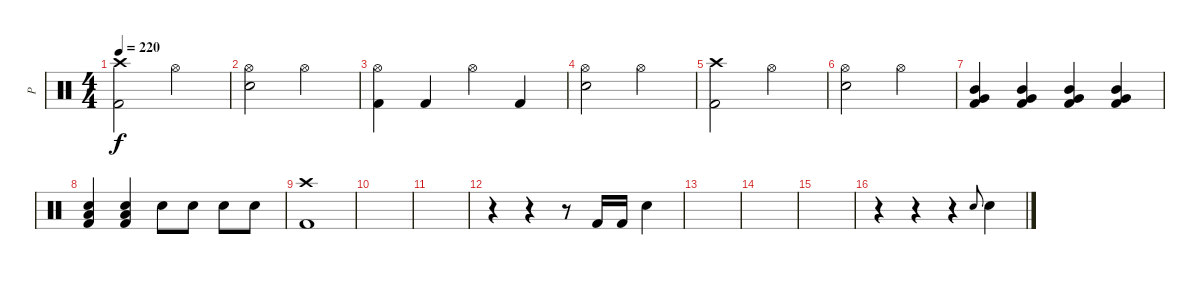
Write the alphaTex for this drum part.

\track ("P" "P") {instrument percussion}
\staff {score}
\articulation defaults
\ts (4 4)
\tempo 220
\clef neutral
\ks c
("Crash high (hit)" "Kick (hit) 2").2{dy f} "Hi-Hat (open)".2 |
("Hi-Hat (open)" "Electric Snare (hit)").2 "Hi-Hat (open)".2 |
("Hi-Hat (open)" "Kick (hit) 2").4 "Kick (hit) 2".4 "Hi-Hat (open)".4 "Kick (hit) 2".4 |
("Hi-Hat (open)" "Electric Snare (hit)").2 "Hi-Hat (open)".2 |
("Crash high (hit)" "Kick (hit) 2").2 "Hi-Hat (open)".2 |
("Hi-Hat (open)" "Electric Snare (hit)").2 "Hi-Hat (open)".2 |
("Very Low Tom (hit)" "Mid Tom (hit)" "Kick (hit) 2").4 ("Very Low Tom (hit)" "Mid Tom (hit)" "Kick (hit) 2").4 ("Very Low Tom (hit)" "Mid Tom (hit)" "Kick (hit) 2").4 ("Very Low Tom (hit)" "Mid Tom (hit)" "Kick (hit) 2").4 |
("Low Tom (hit)" "Electric Snare (hit)" "Kick (hit) 2").4 ("Low Tom (hit)" "Electric Snare (hit)" "Kick (hit) 2").4 "Electric Snare (hit)".8 "Electric Snare (hit)".8 "Electric Snare (hit)".8 "Electric Snare (hit)".8 |
("Crash high (hit)" "Kick (hit) 2").1 |
|
|
r.4 r.4 r.8 "Kick (hit) 2".16 "Kick (hit) 2".16 "Electric Snare (hit)".4 |
|
|
|
r.4 r.4 r.4 "Electric Snare (hit)".8{gr onbeat} "Electric Snare (hit)".4
